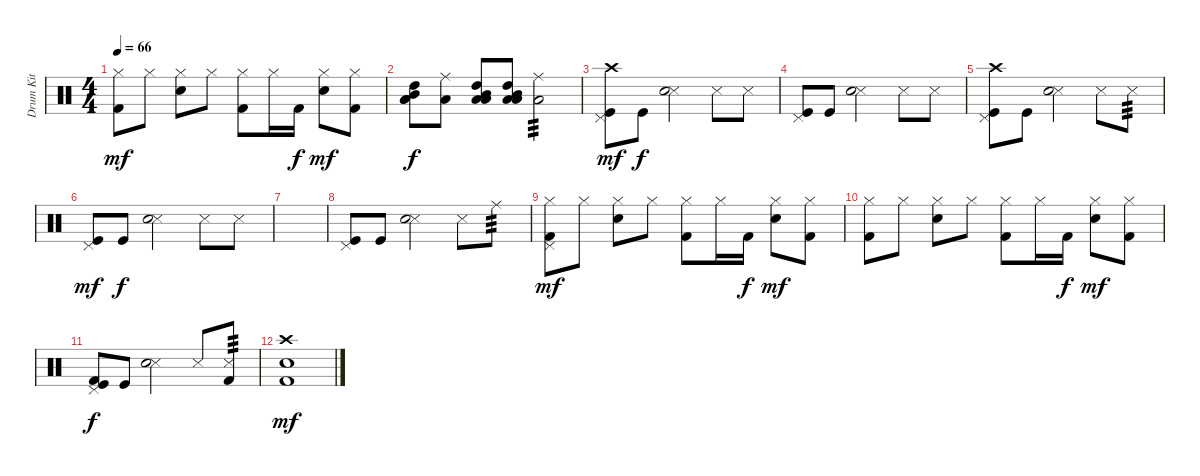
\track ("Drum Kit" "Drum Kit") {instrument percussion}
\staff {score}
\articulation defaults
\ts (4 4)
\tempo 66
\clef neutral
\ks c
("Hi-Hat (closed)" "Kick (hit) 2").8{dy mf} "Hi-Hat (closed)".8 ("Hi-Hat (closed)" "Snare (hit) 2").8 "Hi-Hat (closed)".8 ("Hi-Hat (closed)" "Kick (hit) 2").8 "Hi-Hat (closed)".16 "Kick (hit) 2".16{dy f} ("Hi-Hat (closed)" "Snare (hit) 2").8{dy mf} ("Hi-Hat (closed)" "Kick (hit) 2").8 |
("Mid Tom (hit)" "Low Tom (hit)" "High Tom (hit)" "Low Floor Tom (hit)").8{dy f} ("Low Floor Tom (hit)" "Ride (middle)").8 ("Mid Tom (hit)" "Low Tom (hit)" "High Tom (hit)" "Low Floor Tom (hit)").8 ("Mid Tom (hit)" "Low Tom (hit)" "High Tom (hit)" "Low Floor Tom (hit)").8 ("Low Floor Tom (hit)" "Ride (middle)").2{tp 3} |
("Pedal Hi-Hat (hit)" "Kick (hit)" "Crash high (hit)").8{dy mf} "Kick (hit)".8{dy f} ("Snare (side stick) 3" "Snare (hit) 2").2 "Snare (side stick) 3".8 "Snare (side stick) 3".8 |
("Pedal Hi-Hat (hit)" "Kick (hit)").8 "Kick (hit)".8 ("Snare (side stick) 3" "Snare (hit) 2").2 "Snare (side stick) 3".8 "Snare (side stick) 3".8 |
("Pedal Hi-Hat (hit)" "Kick (hit)" "Crash high (hit)").8 "Kick (hit)".8 ("Snare (side stick) 3" "Snare (hit) 2").2 "Snare (side stick) 3".8 "Snare (side stick) 3".8{tp 3} |
("Pedal Hi-Hat (hit)" "Kick (hit)").8{dy mf} "Kick (hit)".8{dy f} ("Snare (side stick) 3" "Snare (hit) 2").2 "Snare (side stick) 3".8 "Snare (side stick) 3".8 |
|
("Pedal Hi-Hat (hit)" "Kick (hit)").8 "Kick (hit)".8 ("Snare (side stick) 3" "Snare (hit) 2").2 "Snare (side stick) 3".8 "Ride (middle)".8{tp 3} |
("Hi-Hat (closed)" "Pedal Hi-Hat (hit)" "Kick (hit) 2").8{dy mf} "Hi-Hat (closed)".8 ("Hi-Hat (closed)" "Snare (hit) 2").8 "Hi-Hat (closed)".8 ("Hi-Hat (closed)" "Kick (hit) 2").8 "Hi-Hat (closed)".16 "Kick (hit) 2".16{dy f} ("Hi-Hat (closed)" "Snare (hit) 2").8{dy mf} ("Hi-Hat (closed)" "Kick (hit) 2").8 |
("Hi-Hat (closed)" "Kick (hit) 2").8 "Hi-Hat (closed)".8 ("Hi-Hat (closed)" "Snare (hit) 2").8 "Hi-Hat (closed)".8 ("Hi-Hat (closed)" "Kick (hit) 2").8 "Hi-Hat (closed)".16 "Kick (hit) 2".16{dy f} ("Hi-Hat (closed)" "Snare (hit) 2").8{dy mf} ("Hi-Hat (closed)" "Kick (hit) 2").8 |
("Pedal Hi-Hat (hit)" "Kick (hit)" "Kick (hit) 2").8{dy f} "Kick (hit)".8 ("Snare (side stick) 3" "Snare (hit) 2").2 "Snare (side stick) 3".8 ("Kick (hit) 2" "Snare (side stick) 3").8{tp 3} |
("Snare (hit) 2" "Crash high (hit)" "Kick (hit) 2").1{dy mf}
